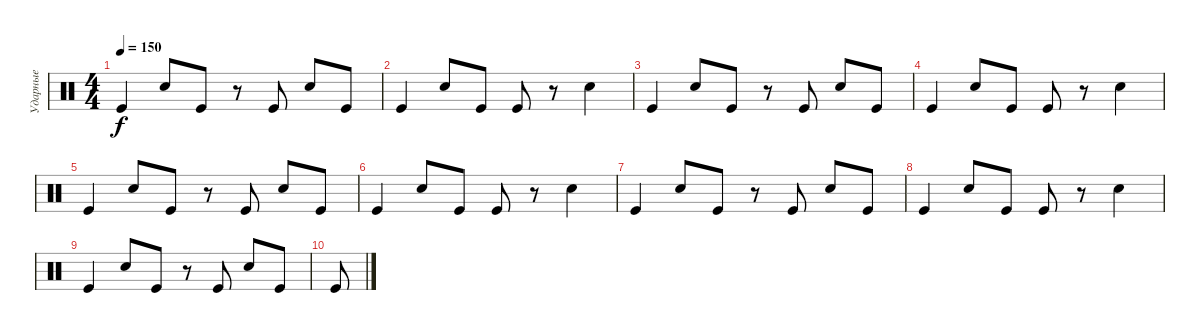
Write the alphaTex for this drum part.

\track ("Ударные" "Ударные") {instrument percussion}
\staff {score}
\articulation defaults
\ts (4 4)
\tempo 150
\clef neutral
\ks c "Kick (hit)".4{dy f} "Snare (hit) 2".8 "Kick (hit)".8
r.8 "Kick (hit)".8 "Snare (hit) 2".8 "Kick (hit)".8 |
"Kick (hit)".4 "Snare (hit) 2".8 "Kick (hit)".8 "Kick (hit)".8 r.8 "Snare (hit) 2".4 |
"Kick (hit)".4 "Snare (hit) 2".8 "Kick (hit)".8 r.8 "Kick (hit)".8 "Snare (hit) 2".8 "Kick (hit)".8 |
"Kick (hit)".4 "Snare (hit) 2".8 "Kick (hit)".8 "Kick (hit)".8 r.8 "Snare (hit) 2".4 |
"Kick (hit)".4 "Snare (hit) 2".8 "Kick (hit)".8 r.8 "Kick (hit)".8 "Snare (hit) 2".8 "Kick (hit)".8 |
"Kick (hit)".4 "Snare (hit) 2".8 "Kick (hit)".8 "Kick (hit)".8 r.8 "Snare (hit) 2".4 |
"Kick (hit)".4 "Snare (hit) 2".8 "Kick (hit)".8 r.8 "Kick (hit)".8 "Snare (hit) 2".8 "Kick (hit)".8 |
"Kick (hit)".4 "Snare (hit) 2".8 "Kick (hit)".8 "Kick (hit)".8 r.8 "Snare (hit) 2".4 |
"Kick (hit)".4 "Snare (hit) 2".8 "Kick (hit)".8 r.8 "Kick (hit)".8 "Snare (hit) 2".8 "Kick (hit)".8 |
"Kick (hit)".8
